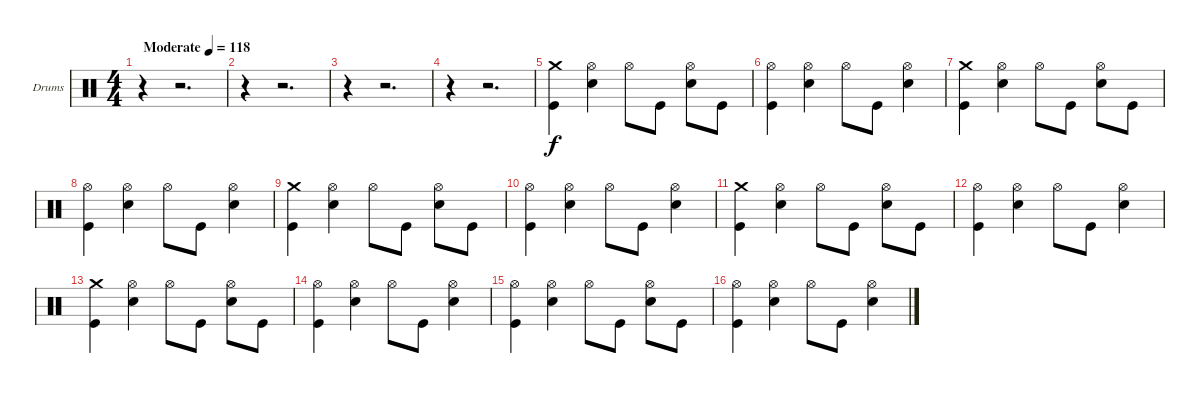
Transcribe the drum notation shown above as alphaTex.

\bracketExtendMode groupsimilarinstruments
\firstSystemTrackNameOrientation horizontal
\otherSystemsTrackNameOrientation horizontal
\track ("Drumkit" "Drums") {instrument percussion}
\staff {score}
\articulation defaults
\ts (4 4)
\beaming (8 2 2 2 2)
\tempo (118 "Moderate")
\clef neutral
\ks c
r.4{dy f} r.2{d} |
r.4 r.2{d} |
r.4 r.2{d} |
r.4 r.2{d} |
("Crash medium (hit)" "Kick (hit)").4 ("Hi-Hat (open)" "Snare (hit) 2").4 "Hi-Hat (open)".8 "Kick (hit)".8 ("Hi-Hat (open)" "Snare (hit) 2").8 "Kick (hit)".8 |
("Hi-Hat (open)" "Kick (hit)").4 ("Hi-Hat (open)" "Snare (hit) 2").4 "Hi-Hat (open)".8 "Kick (hit)".8 ("Hi-Hat (open)" "Snare (hit) 2").4 |
("Crash medium (hit)" "Kick (hit)").4 ("Hi-Hat (open)" "Snare (hit) 2").4 "Hi-Hat (open)".8 "Kick (hit)".8 ("Hi-Hat (open)" "Snare (hit) 2").8 "Kick (hit)".8 |
("Hi-Hat (open)" "Kick (hit)").4 ("Hi-Hat (open)" "Snare (hit) 2").4 "Hi-Hat (open)".8 "Kick (hit)".8 ("Hi-Hat (open)" "Snare (hit) 2").4 |
("Crash medium (hit)" "Kick (hit)").4 ("Hi-Hat (open)" "Snare (hit) 2").4 "Hi-Hat (open)".8 "Kick (hit)".8 ("Hi-Hat (open)" "Snare (hit) 2").8 "Kick (hit)".8 |
("Hi-Hat (open)" "Kick (hit)").4 ("Hi-Hat (open)" "Snare (hit) 2").4 "Hi-Hat (open)".8 "Kick (hit)".8 ("Hi-Hat (open)" "Snare (hit) 2").4 |
("Crash medium (hit)" "Kick (hit)").4 ("Hi-Hat (open)" "Snare (hit) 2").4 "Hi-Hat (open)".8 "Kick (hit)".8 ("Hi-Hat (open)" "Snare (hit) 2").8 "Kick (hit)".8 |
("Hi-Hat (open)" "Kick (hit)").4 ("Hi-Hat (open)" "Snare (hit) 2").4 "Hi-Hat (open)".8 "Kick (hit)".8 ("Hi-Hat (open)" "Snare (hit) 2").4 |
("Crash medium (hit)" "Kick (hit)").4 ("Hi-Hat (open)" "Snare (hit) 2").4 "Hi-Hat (open)".8 "Kick (hit)".8 ("Hi-Hat (open)" "Snare (hit) 2").8 "Kick (hit)".8 |
("Hi-Hat (open)" "Kick (hit)").4 ("Hi-Hat (open)" "Snare (hit) 2").4 "Hi-Hat (open)".8 "Kick (hit)".8 ("Hi-Hat (open)" "Snare (hit) 2").4 |
("Hi-Hat (open)" "Kick (hit)").4 ("Hi-Hat (open)" "Snare (hit) 2").4 "Hi-Hat (open)".8 "Kick (hit)".8 ("Hi-Hat (open)" "Snare (hit) 2").8 "Kick (hit)".8 |
("Hi-Hat (open)" "Kick (hit)").4 ("Hi-Hat (open)" "Snare (hit) 2").4 "Hi-Hat (open)".8 "Kick (hit)".8 ("Hi-Hat (open)" "Snare (hit) 2").4
